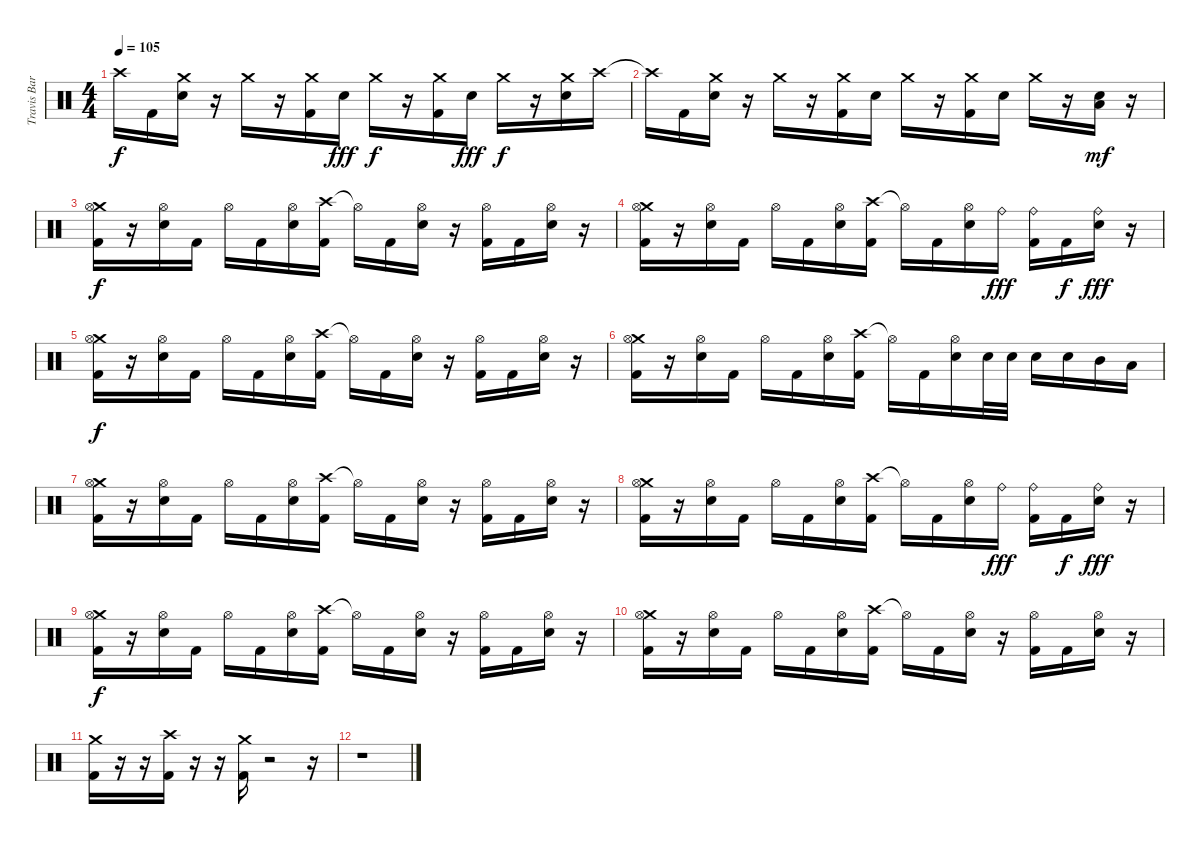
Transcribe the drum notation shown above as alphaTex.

\track ("Travis Barker" "Travis Bar") {instrument percussion}
\staff {score}
\articulation defaults
\ts (4 4)
\tempo 105
\clef neutral
\ks c "Crash high (hit)"{t}.16{dy f} "Kick (hit) 2".16
("Crash medium (hit)" "Electric Snare (hit)").16 r.16 "Crash medium (hit)".16 r.16 ("Crash medium (hit)" "Kick (hit) 2").16 "Electric Snare (hit)".16{dy fff} "Crash medium (hit)".16{dy f} r.16 ("Crash medium (hit)" "Kick (hit) 2").16 "Electric Snare (hit)".16{dy fff} "Crash medium (hit)".16{dy f} r.16 ("Crash medium (hit)" "Electric Snare (hit)").16 "Crash high (hit)".16 |
"Crash high (hit)"{t}.16 "Kick (hit) 2".16 ("Crash medium (hit)" "Electric Snare (hit)").16 r.16 "Crash medium (hit)".16 r.16 ("Crash medium (hit)" "Kick (hit) 2").16 "Electric Snare (hit)".16 "Crash medium (hit)".16 r.16 ("Crash medium (hit)" "Kick (hit) 2").16 "Electric Snare (hit)".16 "Crash medium (hit)".16 r.16 ("Low Tom (hit)" "Electric Snare (hit)").16{dy mf} r.16 |
("Crash medium (hit)" "Hi-Hat (open)" "Kick (hit) 2").16{dy f} r.16 ("Hi-Hat (open)" "Electric Snare (hit)").16 "Kick (hit) 2".16 "Hi-Hat (open)".16 "Kick (hit) 2".16 ("Hi-Hat (open)" "Electric Snare (hit)").16 ("Crash high (hit)" "Kick (hit) 2").16 "Hi-Hat (open)"{t}.16 "Kick (hit) 2".16 ("Hi-Hat (open)" "Electric Snare (hit)").16 r.16 ("Hi-Hat (open)" "Kick (hit) 2").16 "Kick (hit) 2".16 ("Hi-Hat (open)" "Electric Snare (hit)").16 r.16 |
("Crash medium (hit)" "Hi-Hat (open)" "Kick (hit) 2").16 r.16 ("Hi-Hat (open)" "Electric Snare (hit)").16 "Kick (hit) 2".16 "Hi-Hat (open)".16 "Kick (hit) 2".16 ("Hi-Hat (open)" "Electric Snare (hit)").16 ("Crash high (hit)" "Kick (hit) 2").16 "Hi-Hat (open)"{t}.16 "Kick (hit) 2".16 ("Hi-Hat (open)" "Electric Snare (hit)").16 "Ride (bell)".16{dy fff} ("Ride (bell)" "Kick (hit) 2").16 "Kick (hit) 2".16{dy f} ("Ride (bell)" "Electric Snare (hit)").16{dy fff} r.16 |
("Crash medium (hit)" "Hi-Hat (open)" "Kick (hit) 2").16{dy f} r.16 ("Hi-Hat (open)" "Electric Snare (hit)").16 "Kick (hit) 2".16 "Hi-Hat (open)".16 "Kick (hit) 2".16 ("Hi-Hat (open)" "Electric Snare (hit)").16 ("Crash high (hit)" "Kick (hit) 2").16 "Hi-Hat (open)"{t}.16 "Kick (hit) 2".16 ("Hi-Hat (open)" "Electric Snare (hit)").16 r.16 ("Hi-Hat (open)" "Kick (hit) 2").16 "Kick (hit) 2".16 ("Hi-Hat (open)" "Electric Snare (hit)").16 r.16 |
("Crash medium (hit)" "Hi-Hat (open)" "Kick (hit) 2").16 r.16 ("Hi-Hat (open)" "Electric Snare (hit)").16 "Kick (hit) 2".16 "Hi-Hat (open)".16 "Kick (hit) 2".16 ("Hi-Hat (open)" "Electric Snare (hit)").16 ("Crash high (hit)" "Kick (hit) 2").16 "Hi-Hat (open)"{t}.16 "Kick (hit) 2".16 ("Hi-Hat (open)" "Electric Snare (hit)").16 "Electric Snare (hit)".32 "Electric Snare (hit)".32 "Electric Snare (hit)".16 "Electric Snare (hit)".16 "Mid Tom (hit)".16 "Low Tom (hit)".16 |
("Crash medium (hit)" "Hi-Hat (open)" "Kick (hit) 2").16 r.16 ("Hi-Hat (open)" "Electric Snare (hit)").16 "Kick (hit) 2".16 "Hi-Hat (open)".16 "Kick (hit) 2".16 ("Hi-Hat (open)" "Electric Snare (hit)").16 ("Crash high (hit)" "Kick (hit) 2").16 "Hi-Hat (open)"{t}.16 "Kick (hit) 2".16 ("Hi-Hat (open)" "Electric Snare (hit)").16 r.16 ("Hi-Hat (open)" "Kick (hit) 2").16 "Kick (hit) 2".16 ("Hi-Hat (open)" "Electric Snare (hit)").16 r.16 |
("Crash medium (hit)" "Hi-Hat (open)" "Kick (hit) 2").16 r.16 ("Hi-Hat (open)" "Electric Snare (hit)").16 "Kick (hit) 2".16 "Hi-Hat (open)".16 "Kick (hit) 2".16 ("Hi-Hat (open)" "Electric Snare (hit)").16 ("Crash high (hit)" "Kick (hit) 2").16 "Hi-Hat (open)"{t}.16 "Kick (hit) 2".16 ("Hi-Hat (open)" "Electric Snare (hit)").16 "Ride (bell)".16{dy fff} ("Ride (bell)" "Kick (hit) 2").16 "Kick (hit) 2".16{dy f} ("Ride (bell)" "Electric Snare (hit)").16{dy fff} r.16 |
("Crash medium (hit)" "Hi-Hat (open)" "Kick (hit) 2").16{dy f} r.16 ("Hi-Hat (open)" "Electric Snare (hit)").16 "Kick (hit) 2".16 "Hi-Hat (open)".16 "Kick (hit) 2".16 ("Hi-Hat (open)" "Electric Snare (hit)").16 ("Crash high (hit)" "Kick (hit) 2").16 "Hi-Hat (open)"{t}.16 "Kick (hit) 2".16 ("Hi-Hat (open)" "Electric Snare (hit)").16 r.16 ("Hi-Hat (open)" "Kick (hit) 2").16 "Kick (hit) 2".16 ("Hi-Hat (open)" "Electric Snare (hit)").16 r.16 |
("Crash medium (hit)" "Hi-Hat (open)" "Kick (hit) 2").16 r.16 ("Hi-Hat (open)" "Electric Snare (hit)").16 "Kick (hit) 2".16 "Hi-Hat (open)".16 "Kick (hit) 2".16 ("Hi-Hat (open)" "Electric Snare (hit)").16 ("Crash high (hit)" "Kick (hit) 2").16 "Hi-Hat (open)"{t}.16 "Kick (hit) 2".16 ("Hi-Hat (open)" "Electric Snare (hit)").16 r.16 ("Hi-Hat (open)" "Kick (hit) 2").16 "Kick (hit) 2".16 ("Hi-Hat (open)" "Electric Snare (hit)").16 r.16 |
("Crash medium (hit)" "Kick (hit) 2").16 r.16 r.16 ("Crash high (hit)" "Kick (hit) 2").16 r.16 r.16 ("Crash medium (hit)" "Kick (hit) 2").16 r.2 r.16 |
r.1
